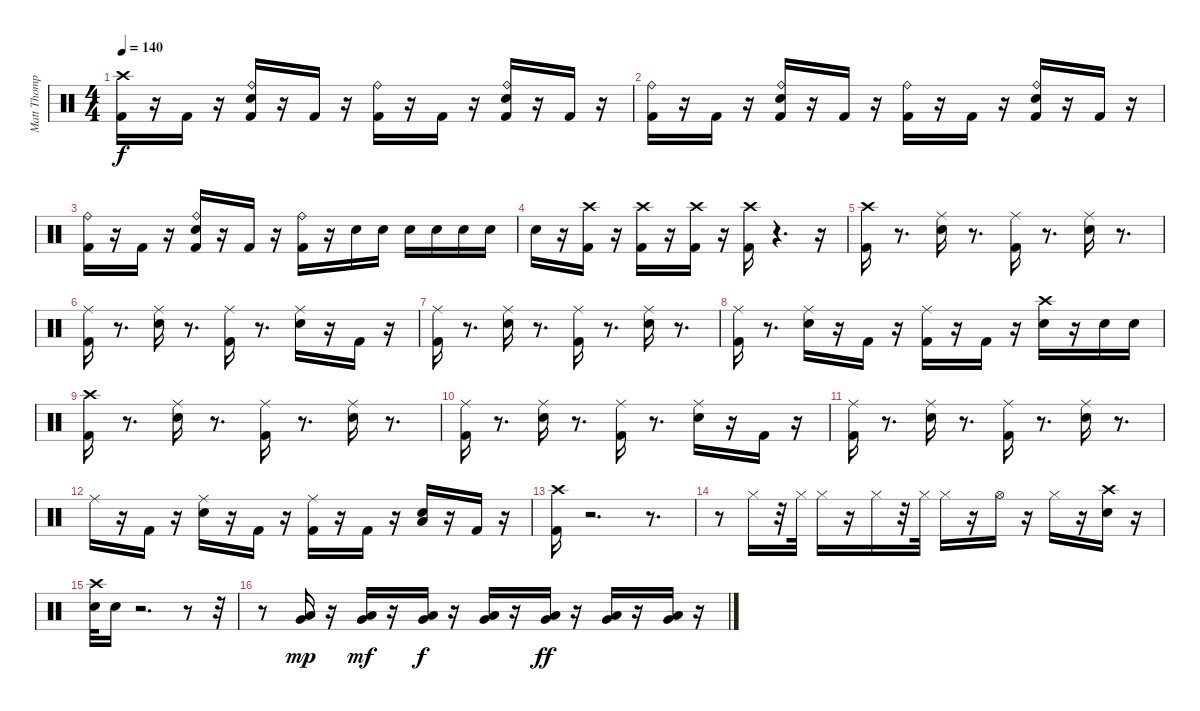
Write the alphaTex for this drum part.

\track ("Matt Thompson" "Matt Thomp") {instrument percussion}
\staff {score}
\articulation defaults
\ts (4 4)
\tempo 140
\clef neutral
\ks c
("Crash high (hit)" "Kick (hit) 2").16{dy f} r.16 "Kick (hit) 2".16 r.16 ("Ride (bell)" "Snare (hit) 2" "Kick (hit) 2").16 r.16 "Kick (hit) 2".16 r.16 ("Ride (bell)" "Kick (hit) 2").16 r.16 "Kick (hit) 2".16 r.16 ("Ride (bell)" "Snare (hit) 2" "Kick (hit) 2").16 r.16 "Kick (hit) 2".16 r.16 |
("Ride (bell)" "Kick (hit) 2").16 r.16 "Kick (hit) 2".16 r.16 ("Ride (bell)" "Snare (hit) 2" "Kick (hit) 2").16 r.16 "Kick (hit) 2".16 r.16 ("Ride (bell)" "Kick (hit) 2").16 r.16 "Kick (hit) 2".16 r.16 ("Ride (bell)" "Snare (hit) 2" "Kick (hit) 2").16 r.16 "Kick (hit) 2".16 r.16 |
("Ride (bell)" "Kick (hit) 2").16 r.16 "Kick (hit) 2".16 r.16 ("Ride (bell)" "Snare (hit) 2" "Kick (hit) 2").16 r.16 "Kick (hit) 2".16 r.16 ("Ride (bell)" "Kick (hit) 2").16 r.16 "Snare (hit) 2".16 "Snare (hit) 2".16 "Snare (hit) 2".16 "Snare (hit) 2".16 "Snare (hit) 2".16 "Snare (hit) 2".16 |
"Snare (hit) 2".16 r.16 ("Crash high (hit)" "Kick (hit) 2").16 r.16 ("Crash high (hit)" "Kick (hit) 2").16 r.16 ("Crash high (hit)" "Kick (hit) 2").16 r.16 ("Crash high (hit)" "Kick (hit) 2").16 r.4{d} r.16 |
("Crash high (hit)" "Kick (hit) 2").16 r.8{d} ("Ride (middle)" "Snare (hit) 2").16 r.8{d} ("Ride (middle)" "Kick (hit) 2").16 r.8{d} ("Ride (middle)" "Snare (hit) 2").16 r.8{d} |
("Ride (middle)" "Kick (hit) 2").16 r.8{d} ("Ride (middle)" "Snare (hit) 2").16 r.8{d} ("Ride (middle)" "Kick (hit) 2").16 r.8{d} ("Ride (middle)" "Snare (hit) 2").16 r.16 "Kick (hit) 2".16 r.16 |
("Ride (middle)" "Kick (hit) 2").16 r.8{d} ("Ride (middle)" "Snare (hit) 2").16 r.8{d} ("Ride (middle)" "Kick (hit) 2").16 r.8{d} ("Ride (middle)" "Snare (hit) 2").16 r.8{d} |
("Ride (middle)" "Kick (hit) 2").16 r.8{d} ("Ride (middle)" "Snare (hit) 2").16 r.16 "Kick (hit) 2".16 r.16 ("Ride (middle)" "Kick (hit) 2").16 r.16 "Kick (hit) 2".16 r.16 ("Crash high (hit)" "Snare (hit) 2").16 r.16 "Snare (hit) 2".16 "Snare (hit) 2".16 |
("Crash high (hit)" "Kick (hit) 2").16 r.8{d} ("Ride (middle)" "Snare (hit) 2").16 r.8{d} ("Ride (middle)" "Kick (hit) 2").16 r.8{d} ("Ride (middle)" "Snare (hit) 2").16 r.8{d} |
("Ride (middle)" "Kick (hit) 2").16 r.8{d} ("Ride (middle)" "Snare (hit) 2").16 r.8{d} ("Ride (middle)" "Kick (hit) 2").16 r.8{d} ("Ride (middle)" "Snare (hit) 2").16 r.16 "Kick (hit) 2".16 r.16 |
("Ride (middle)" "Kick (hit) 2").16 r.8{d} ("Ride (middle)" "Snare (hit) 2").16 r.8{d} ("Ride (middle)" "Kick (hit) 2").16 r.8{d} ("Ride (middle)" "Snare (hit) 2").16 r.8{d} |
"Ride (middle)".16 r.16 "Kick (hit) 2".16 r.16 ("Ride (middle)" "Snare (hit) 2").16 r.16 "Kick (hit) 2".16 r.16 ("Ride (middle)" "Kick (hit) 2").16 r.16 "Kick (hit) 2".16 r.16 ("Low Tom (hit)" "Snare (hit) 2").16 r.16 "Kick (hit) 2".16 r.16 |
("Crash high (hit)" "Kick (hit) 2").16 r.2{d} r.8{d} |
r.8 "Hi-Hat (closed)".16 r.32 "Hi-Hat (closed)".32 "Hi-Hat (closed)".16 r.16 "Hi-Hat (closed)".16 r.32 "Hi-Hat (closed)".32 "Hi-Hat (closed)".16 r.16 "Hi-Hat (open)".16 r.16 "Hi-Hat (closed)".16 r.16 ("Crash high (hit)" "Snare (hit) 2").16 r.16 |
("Crash high (hit)" "Snare (hit) 2").32 "Snare (hit) 2".16 r.2{d} r.8 r.32 |
r.8 ("Very Low Tom (hit)" "Low Floor Tom (hit)").16{dy mp} r.16 ("Very Low Tom (hit)" "Low Floor Tom (hit)").16{dy mf} r.16 ("Very Low Tom (hit)" "Low Floor Tom (hit)").16{dy f} r.16 ("Very Low Tom (hit)" "Low Floor Tom (hit)").16 r.16 ("Very Low Tom (hit)" "Low Floor Tom (hit)").16{dy ff} r.16 ("Very Low Tom (hit)" "Low Floor Tom (hit)").16 r.16 ("Very Low Tom (hit)" "Low Floor Tom (hit)").16 r.16
